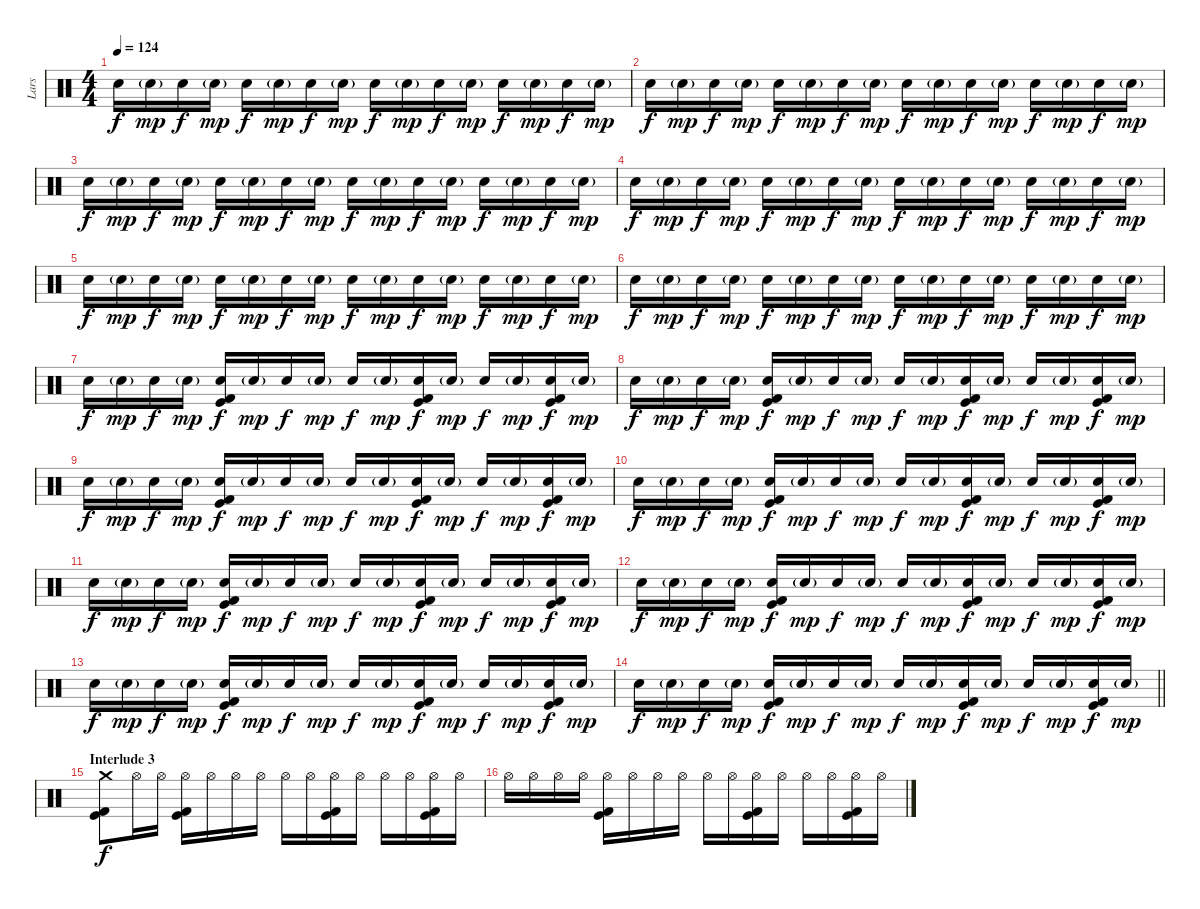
\track ("Lars" "Lars") {instrument percussion}
\staff {score}
\articulation defaults
\ts (4 4)
\tempo 124
\clef neutral
\ks c "Electric Snare (hit)".16{dy f} "Electric Snare (hit)"{g}.16{dy mp} "Electric Snare (hit)".16{dy f} "Electric Snare (hit)"{g}.16{dy mp} "Electric Snare (hit)".16{dy f} "Electric Snare (hit)"{g}.16{dy mp} "Electric Snare (hit)".16{dy f} "Electric Snare (hit)"{g}.16{dy mp} "Electric Snare (hit)".16{dy f} "Electric Snare (hit)"{g}.16{dy mp} "Electric Snare (hit)".16{dy f} "Electric Snare (hit)"{g}.16{dy mp} "Electric Snare (hit)".16{dy f} "Electric Snare (hit)"{g}.16{dy mp} "Electric Snare (hit)".16{dy f} "Electric Snare (hit)"{g}.16{dy mp}
|
"Electric Snare (hit)".16{dy f} "Electric Snare (hit)"{g}.16{dy mp} "Electric Snare (hit)".16{dy f} "Electric Snare (hit)"{g}.16{dy mp} "Electric Snare (hit)".16{dy f} "Electric Snare (hit)"{g}.16{dy mp} "Electric Snare (hit)".16{dy f} "Electric Snare (hit)"{g}.16{dy mp} "Electric Snare (hit)".16{dy f} "Electric Snare (hit)"{g}.16{dy mp} "Electric Snare (hit)".16{dy f} "Electric Snare (hit)"{g}.16{dy mp} "Electric Snare (hit)".16{dy f} "Electric Snare (hit)"{g}.16{dy mp} "Electric Snare (hit)".16{dy f} "Electric Snare (hit)"{g}.16{dy mp} |
"Electric Snare (hit)".16{dy f} "Electric Snare (hit)"{g}.16{dy mp} "Electric Snare (hit)".16{dy f} "Electric Snare (hit)"{g}.16{dy mp} "Electric Snare (hit)".16{dy f} "Electric Snare (hit)"{g}.16{dy mp} "Electric Snare (hit)".16{dy f} "Electric Snare (hit)"{g}.16{dy mp} "Electric Snare (hit)".16{dy f} "Electric Snare (hit)"{g}.16{dy mp} "Electric Snare (hit)".16{dy f} "Electric Snare (hit)"{g}.16{dy mp} "Electric Snare (hit)".16{dy f} "Electric Snare (hit)"{g}.16{dy mp} "Electric Snare (hit)".16{dy f} "Electric Snare (hit)"{g}.16{dy mp} |
"Electric Snare (hit)".16{dy f} "Electric Snare (hit)"{g}.16{dy mp} "Electric Snare (hit)".16{dy f} "Electric Snare (hit)"{g}.16{dy mp} "Electric Snare (hit)".16{dy f} "Electric Snare (hit)"{g}.16{dy mp} "Electric Snare (hit)".16{dy f} "Electric Snare (hit)"{g}.16{dy mp} "Electric Snare (hit)".16{dy f} "Electric Snare (hit)"{g}.16{dy mp} "Electric Snare (hit)".16{dy f} "Electric Snare (hit)"{g}.16{dy mp} "Electric Snare (hit)".16{dy f} "Electric Snare (hit)"{g}.16{dy mp} "Electric Snare (hit)".16{dy f} "Electric Snare (hit)"{g}.16{dy mp} |
"Electric Snare (hit)".16{dy f} "Electric Snare (hit)"{g}.16{dy mp} "Electric Snare (hit)".16{dy f} "Electric Snare (hit)"{g}.16{dy mp} "Electric Snare (hit)".16{dy f} "Electric Snare (hit)"{g}.16{dy mp} "Electric Snare (hit)".16{dy f} "Electric Snare (hit)"{g}.16{dy mp} "Electric Snare (hit)".16{dy f} "Electric Snare (hit)"{g}.16{dy mp} "Electric Snare (hit)".16{dy f} "Electric Snare (hit)"{g}.16{dy mp} "Electric Snare (hit)".16{dy f} "Electric Snare (hit)"{g}.16{dy mp} "Electric Snare (hit)".16{dy f} "Electric Snare (hit)"{g}.16{dy mp} |
"Electric Snare (hit)".16{dy f} "Electric Snare (hit)"{g}.16{dy mp} "Electric Snare (hit)".16{dy f} "Electric Snare (hit)"{g}.16{dy mp} "Electric Snare (hit)".16{dy f} "Electric Snare (hit)"{g}.16{dy mp} "Electric Snare (hit)".16{dy f} "Electric Snare (hit)"{g}.16{dy mp} "Electric Snare (hit)".16{dy f} "Electric Snare (hit)"{g}.16{dy mp} "Electric Snare (hit)".16{dy f} "Electric Snare (hit)"{g}.16{dy mp} "Electric Snare (hit)".16{dy f} "Electric Snare (hit)"{g}.16{dy mp} "Electric Snare (hit)".16{dy f} "Electric Snare (hit)"{g}.16{dy mp} |
"Electric Snare (hit)".16{dy f} "Electric Snare (hit)"{g}.16{dy mp} "Electric Snare (hit)".16{dy f} "Electric Snare (hit)"{g}.16{dy mp} ("Electric Snare (hit)" "Kick (hit)" "Kick (hit) 2").16{dy f} "Electric Snare (hit)"{g}.16{dy mp} "Electric Snare (hit)".16{dy f} "Electric Snare (hit)"{g}.16{dy mp} "Electric Snare (hit)".16{dy f} "Electric Snare (hit)"{g}.16{dy mp} ("Electric Snare (hit)" "Kick (hit)" "Kick (hit) 2").16{dy f} "Electric Snare (hit)"{g}.16{dy mp} "Electric Snare (hit)".16{dy f} "Electric Snare (hit)"{g}.16{dy mp} ("Electric Snare (hit)" "Kick (hit)" "Kick (hit) 2").16{dy f} "Electric Snare (hit)"{g}.16{dy mp} |
"Electric Snare (hit)".16{dy f} "Electric Snare (hit)"{g}.16{dy mp} "Electric Snare (hit)".16{dy f} "Electric Snare (hit)"{g}.16{dy mp} ("Electric Snare (hit)" "Kick (hit)" "Kick (hit) 2").16{dy f} "Electric Snare (hit)"{g}.16{dy mp} "Electric Snare (hit)".16{dy f} "Electric Snare (hit)"{g}.16{dy mp} "Electric Snare (hit)".16{dy f} "Electric Snare (hit)"{g}.16{dy mp} ("Electric Snare (hit)" "Kick (hit)" "Kick (hit) 2").16{dy f} "Electric Snare (hit)"{g}.16{dy mp} "Electric Snare (hit)".16{dy f} "Electric Snare (hit)"{g}.16{dy mp} ("Electric Snare (hit)" "Kick (hit)" "Kick (hit) 2").16{dy f} "Electric Snare (hit)"{g}.16{dy mp} |
"Electric Snare (hit)".16{dy f} "Electric Snare (hit)"{g}.16{dy mp} "Electric Snare (hit)".16{dy f} "Electric Snare (hit)"{g}.16{dy mp} ("Electric Snare (hit)" "Kick (hit)" "Kick (hit) 2").16{dy f} "Electric Snare (hit)"{g}.16{dy mp} "Electric Snare (hit)".16{dy f} "Electric Snare (hit)"{g}.16{dy mp} "Electric Snare (hit)".16{dy f} "Electric Snare (hit)"{g}.16{dy mp} ("Electric Snare (hit)" "Kick (hit)" "Kick (hit) 2").16{dy f} "Electric Snare (hit)"{g}.16{dy mp} "Electric Snare (hit)".16{dy f} "Electric Snare (hit)"{g}.16{dy mp} ("Electric Snare (hit)" "Kick (hit)" "Kick (hit) 2").16{dy f} "Electric Snare (hit)"{g}.16{dy mp} |
"Electric Snare (hit)".16{dy f} "Electric Snare (hit)"{g}.16{dy mp} "Electric Snare (hit)".16{dy f} "Electric Snare (hit)"{g}.16{dy mp} ("Electric Snare (hit)" "Kick (hit)" "Kick (hit) 2").16{dy f} "Electric Snare (hit)"{g}.16{dy mp} "Electric Snare (hit)".16{dy f} "Electric Snare (hit)"{g}.16{dy mp} "Electric Snare (hit)".16{dy f} "Electric Snare (hit)"{g}.16{dy mp} ("Electric Snare (hit)" "Kick (hit)" "Kick (hit) 2").16{dy f} "Electric Snare (hit)"{g}.16{dy mp} "Electric Snare (hit)".16{dy f} "Electric Snare (hit)"{g}.16{dy mp} ("Electric Snare (hit)" "Kick (hit)" "Kick (hit) 2").16{dy f} "Electric Snare (hit)"{g}.16{dy mp} |
"Electric Snare (hit)".16{dy f} "Electric Snare (hit)"{g}.16{dy mp} "Electric Snare (hit)".16{dy f} "Electric Snare (hit)"{g}.16{dy mp} ("Electric Snare (hit)" "Kick (hit)" "Kick (hit) 2").16{dy f} "Electric Snare (hit)"{g}.16{dy mp} "Electric Snare (hit)".16{dy f} "Electric Snare (hit)"{g}.16{dy mp} "Electric Snare (hit)".16{dy f} "Electric Snare (hit)"{g}.16{dy mp} ("Electric Snare (hit)" "Kick (hit)" "Kick (hit) 2").16{dy f} "Electric Snare (hit)"{g}.16{dy mp} "Electric Snare (hit)".16{dy f} "Electric Snare (hit)"{g}.16{dy mp} ("Electric Snare (hit)" "Kick (hit)" "Kick (hit) 2").16{dy f} "Electric Snare (hit)"{g}.16{dy mp} |
"Electric Snare (hit)".16{dy f} "Electric Snare (hit)"{g}.16{dy mp} "Electric Snare (hit)".16{dy f} "Electric Snare (hit)"{g}.16{dy mp} ("Electric Snare (hit)" "Kick (hit)" "Kick (hit) 2").16{dy f} "Electric Snare (hit)"{g}.16{dy mp} "Electric Snare (hit)".16{dy f} "Electric Snare (hit)"{g}.16{dy mp} "Electric Snare (hit)".16{dy f} "Electric Snare (hit)"{g}.16{dy mp} ("Electric Snare (hit)" "Kick (hit)" "Kick (hit) 2").16{dy f} "Electric Snare (hit)"{g}.16{dy mp} "Electric Snare (hit)".16{dy f} "Electric Snare (hit)"{g}.16{dy mp} ("Electric Snare (hit)" "Kick (hit)" "Kick (hit) 2").16{dy f} "Electric Snare (hit)"{g}.16{dy mp} |
"Electric Snare (hit)".16{dy f volume 16} "Electric Snare (hit)"{g}.16{dy mp} "Electric Snare (hit)".16{dy f} "Electric Snare (hit)"{g}.16{dy mp} ("Electric Snare (hit)" "Kick (hit)" "Kick (hit) 2").16{dy f} "Electric Snare (hit)"{g}.16{dy mp} "Electric Snare (hit)".16{dy f} "Electric Snare (hit)"{g}.16{dy mp} "Electric Snare (hit)".16{dy f} "Electric Snare (hit)"{g}.16{dy mp} ("Electric Snare (hit)" "Kick (hit)" "Kick (hit) 2").16{dy f} "Electric Snare (hit)"{g}.16{dy mp} "Electric Snare (hit)".16{dy f} "Electric Snare (hit)"{g}.16{dy mp} ("Electric Snare (hit)" "Kick (hit)" "Kick (hit) 2").16{dy f} "Electric Snare (hit)"{g}.16{dy mp} |
\barLineRight lightlight "Electric Snare (hit)".16{dy f} "Electric Snare (hit)"{g}.16{dy mp} "Electric Snare (hit)".16{dy f} "Electric Snare (hit)"{g}.16{dy mp}
("Electric Snare (hit)" "Kick (hit)" "Kick (hit) 2").16{dy f} "Electric Snare (hit)"{g}.16{dy mp} "Electric Snare (hit)".16{dy f} "Electric Snare (hit)"{g}.16{dy mp} "Electric Snare (hit)".16{dy f} "Electric Snare (hit)"{g}.16{dy mp} ("Electric Snare (hit)" "Kick (hit)" "Kick (hit) 2").16{dy f} "Electric Snare (hit)"{g}.16{dy mp} "Electric Snare (hit)".16{dy f} "Electric Snare (hit)"{g}.16{dy mp} ("Electric Snare (hit)" "Kick (hit)" "Kick (hit) 2").16{dy f} "Electric Snare (hit)"{g}.16{dy mp} |
\section ("" "Interlude 3")
("Crash medium (hit)" "Kick (hit)" "Kick (hit) 2").8{dy f} "Hi-Hat (open)".16 "Hi-Hat (open)".16 ("Hi-Hat (open)" "Kick (hit)" "Kick (hit) 2").16 "Hi-Hat (open)".16 "Hi-Hat (open)".16 "Hi-Hat (open)".16 "Hi-Hat (open)".16 "Hi-Hat (open)".16 ("Hi-Hat (open)" "Kick (hit)" "Kick (hit) 2").16 "Hi-Hat (open)".16 "Hi-Hat (open)".16 "Hi-Hat (open)".16 ("Hi-Hat (open)" "Kick (hit)" "Kick (hit) 2").16 "Hi-Hat (open)".16 |
"Hi-Hat (open)".16 "Hi-Hat (open)".16 "Hi-Hat (open)".16 "Hi-Hat (open)".16 ("Hi-Hat (open)" "Kick (hit)" "Kick (hit) 2").16 "Hi-Hat (open)".16 "Hi-Hat (open)".16 "Hi-Hat (open)".16 "Hi-Hat (open)".16 "Hi-Hat (open)".16 ("Hi-Hat (open)" "Kick (hit)" "Kick (hit) 2").16 "Hi-Hat (open)".16 "Hi-Hat (open)".16 "Hi-Hat (open)".16 ("Hi-Hat (open)" "Kick (hit)" "Kick (hit) 2").16 "Hi-Hat (open)".16
